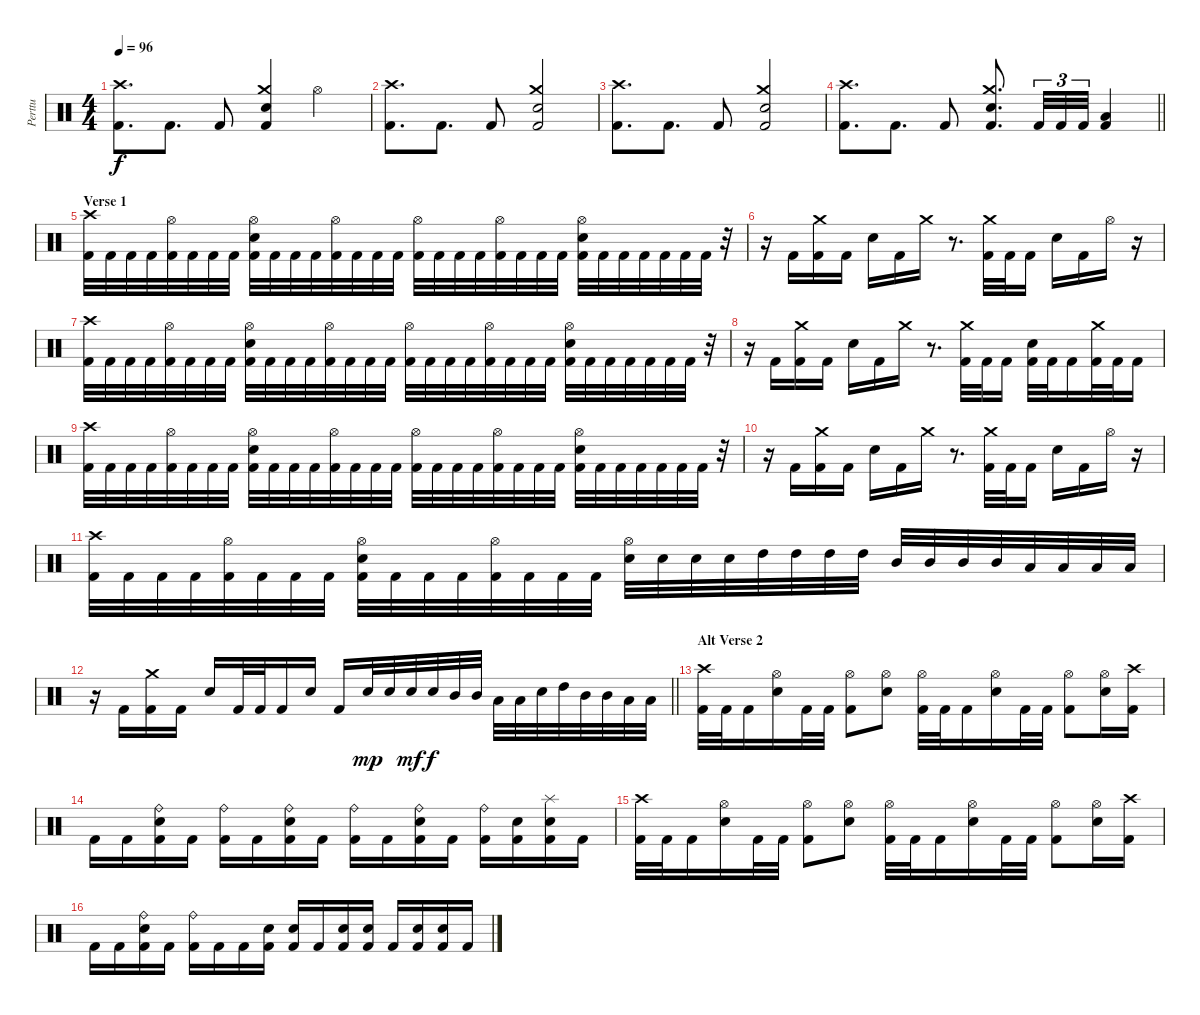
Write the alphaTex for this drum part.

\track ("Perttu" "Perttu") {instrument percussion}
\staff {score}
\articulation defaults
\ts (4 4)
\tempo 96
\clef neutral
\ks c
("Crash high (hit)" "Kick (hit) 2").8{d dy f} "Kick (hit) 2".8{d} "Kick (hit) 2".8 ("Crash medium (hit)" "Electric Snare (hit)" "Kick (hit) 2").4 "Hi-Hat (open)".4 |
("Crash high (hit)" "Kick (hit) 2").8{d} "Kick (hit) 2".8{d} "Kick (hit) 2".8 ("Crash medium (hit)" "Electric Snare (hit)" "Kick (hit) 2").2 |
("Crash high (hit)" "Kick (hit) 2").8{d} "Kick (hit) 2".8{d} "Kick (hit) 2".8 ("Crash medium (hit)" "Electric Snare (hit)" "Kick (hit) 2").2 |
\barLineRight lightlight
("Crash high (hit)" "Kick (hit) 2").8{d} "Kick (hit) 2".8{d} "Kick (hit) 2".8 ("Crash medium (hit)" "Electric Snare (hit)" "Kick (hit) 2").8{d} "Kick (hit) 2".32{tu (3 2)} "Kick (hit) 2".32{tu (3 2)} "Kick (hit) 2".32{tu (3 2)} ("Low Tom (hit)" "Kick (hit) 2").4 |
\section ("" "Verse 1")
("Crash high (hit)" "Kick (hit) 2").32 "Kick (hit) 2".32 "Kick (hit) 2".32 "Kick (hit) 2".32 ("Hi-Hat (open)" "Kick (hit) 2").32 "Kick (hit) 2".32 "Kick (hit) 2".32 "Kick (hit) 2".32 ("Hi-Hat (open)" "Electric Snare (hit)" "Kick (hit) 2").32 "Kick (hit) 2".32 "Kick (hit) 2".32 "Kick (hit) 2".32 ("Hi-Hat (open)" "Kick (hit) 2").32 "Kick (hit) 2".32 "Kick (hit) 2".32 "Kick (hit) 2".32 ("Hi-Hat (open)" "Kick (hit) 2").32 "Kick (hit) 2".32 "Kick (hit) 2".32 "Kick (hit) 2".32 ("Hi-Hat (open)" "Kick (hit) 2").32 "Kick (hit) 2".32 "Kick (hit) 2".32 "Kick (hit) 2".32 ("Hi-Hat (open)" "Electric Snare (hit)" "Kick (hit) 2").32 "Kick (hit) 2".32 "Kick (hit) 2".32 "Kick (hit) 2".32 "Kick (hit) 2".32 "Kick (hit) 2".32 "Kick (hit) 2".32 r.32 |
r.16 "Kick (hit) 2".16 ("Crash medium (hit)" "Kick (hit) 2").16 "Kick (hit) 2".16 "Electric Snare (hit)".16 "Kick (hit) 2".16 "Crash medium (hit)".16 r.8{d} ("Crash medium (hit)" "Kick (hit) 2").32 "Kick (hit) 2".32 "Kick (hit) 2".16 "Electric Snare (hit)".16 "Kick (hit) 2".16 "Hi-Hat (open)".16 r.16 |
("Crash high (hit)" "Kick (hit) 2").32 "Kick (hit) 2".32 "Kick (hit) 2".32 "Kick (hit) 2".32 ("Hi-Hat (open)" "Kick (hit) 2").32 "Kick (hit) 2".32 "Kick (hit) 2".32 "Kick (hit) 2".32 ("Hi-Hat (open)" "Electric Snare (hit)" "Kick (hit) 2").32 "Kick (hit) 2".32 "Kick (hit) 2".32 "Kick (hit) 2".32 ("Hi-Hat (open)" "Kick (hit) 2").32 "Kick (hit) 2".32 "Kick (hit) 2".32 "Kick (hit) 2".32 ("Hi-Hat (open)" "Kick (hit) 2").32 "Kick (hit) 2".32 "Kick (hit) 2".32 "Kick (hit) 2".32 ("Hi-Hat (open)" "Kick (hit) 2").32 "Kick (hit) 2".32 "Kick (hit) 2".32 "Kick (hit) 2".32 ("Hi-Hat (open)" "Electric Snare (hit)" "Kick (hit) 2").32 "Kick (hit) 2".32 "Kick (hit) 2".32 "Kick (hit) 2".32 "Kick (hit) 2".32 "Kick (hit) 2".32 "Kick (hit) 2".32 r.32 |
r.16 "Kick (hit) 2".16 ("Crash medium (hit)" "Kick (hit) 2").16 "Kick (hit) 2".16 "Electric Snare (hit)".16 "Kick (hit) 2".16 "Crash medium (hit)".16 r.8{d} ("Crash medium (hit)" "Kick (hit) 2").32 "Kick (hit) 2".32 "Kick (hit) 2".16 ("Electric Snare (hit)" "Kick (hit) 2").32 "Kick (hit) 2".32 "Kick (hit) 2".16 ("Crash medium (hit)" "Kick (hit) 2").32 "Kick (hit) 2".32 "Kick (hit) 2".16 |
("Crash high (hit)" "Kick (hit) 2").32 "Kick (hit) 2".32 "Kick (hit) 2".32 "Kick (hit) 2".32 ("Hi-Hat (open)" "Kick (hit) 2").32 "Kick (hit) 2".32 "Kick (hit) 2".32 "Kick (hit) 2".32 ("Hi-Hat (open)" "Electric Snare (hit)" "Kick (hit) 2").32 "Kick (hit) 2".32 "Kick (hit) 2".32 "Kick (hit) 2".32 ("Hi-Hat (open)" "Kick (hit) 2").32 "Kick (hit) 2".32 "Kick (hit) 2".32 "Kick (hit) 2".32 ("Hi-Hat (open)" "Kick (hit) 2").32 "Kick (hit) 2".32 "Kick (hit) 2".32 "Kick (hit) 2".32 ("Hi-Hat (open)" "Kick (hit) 2").32 "Kick (hit) 2".32 "Kick (hit) 2".32 "Kick (hit) 2".32 ("Hi-Hat (open)" "Electric Snare (hit)" "Kick (hit) 2").32 "Kick (hit) 2".32 "Kick (hit) 2".32 "Kick (hit) 2".32 "Kick (hit) 2".32 "Kick (hit) 2".32 "Kick (hit) 2".32 r.32 |
r.16 "Kick (hit) 2".16 ("Crash medium (hit)" "Kick (hit) 2").16 "Kick (hit) 2".16 "Electric Snare (hit)".16 "Kick (hit) 2".16 "Crash medium (hit)".16 r.8{d} ("Crash medium (hit)" "Kick (hit) 2").32 "Kick (hit) 2".32 "Kick (hit) 2".16 "Electric Snare (hit)".16 "Kick (hit) 2".16 "Hi-Hat (open)".16 r.16 |
("Crash high (hit)" "Kick (hit) 2").32 "Kick (hit) 2".32 "Kick (hit) 2".32 "Kick (hit) 2".32 ("Hi-Hat (open)" "Kick (hit) 2").32 "Kick (hit) 2".32 "Kick (hit) 2".32 "Kick (hit) 2".32 ("Hi-Hat (open)" "Electric Snare (hit)" "Kick (hit) 2").32 "Kick (hit) 2".32 "Kick (hit) 2".32 "Kick (hit) 2".32 ("Hi-Hat (open)" "Kick (hit) 2").32 "Kick (hit) 2".32 "Kick (hit) 2".32 "Kick (hit) 2".32 ("Hi-Hat (open)" "Electric Snare (hit)").32 "Electric Snare (hit)".32 "Electric Snare (hit)".32 "Electric Snare (hit)".32 "High Tom (hit)".32 "High Tom (hit)".32 "High Tom (hit)".32 "High Tom (hit)".32 "Mid Tom (hit)".32 "Mid Tom (hit)".32 "Mid Tom (hit)".32 "Mid Tom (hit)".32 "Low Tom (hit)".32 "Low Tom (hit)".32 "Low Tom (hit)".32 "Low Tom (hit)".32 |
\barLineRight lightlight
r.16 "Kick (hit) 2".16 ("Crash medium (hit)" "Kick (hit) 2").16 "Kick (hit) 2".16 "Electric Snare (hit)".16 "Kick (hit) 2".32 "Kick (hit) 2".32 "Kick (hit) 2".16 "Electric Snare (hit)".16 "Kick (hit) 2".16 "Electric Snare (hit)".32{dy mp} "Electric Snare (hit)".32 "Electric Snare (hit)".32{dy mf} "Electric Snare (hit)".32{dy f} "Mid Tom (hit)".32 "Mid Tom (hit)".32 "Low Tom (hit)".32 "Low Tom (hit)".32 "Electric Snare (hit)".32 "High Tom (hit)".32 "Mid Tom (hit)".32 "Mid Tom (hit)".32 "Low Tom (hit)".32 "Low Tom (hit)".32 |
\section ("" "Alt Verse 2 ")
("Crash high (hit)" "Kick (hit) 2").32 "Kick (hit) 2".32 "Kick (hit) 2".16 ("Hi-Hat (open)" "Electric Snare (hit)").16 "Kick (hit) 2".32 "Kick (hit) 2".32 ("Hi-Hat (open)" "Kick (hit) 2").8 ("Hi-Hat (open)" "Electric Snare (hit)").8 ("Hi-Hat (open)" "Kick (hit) 2").32 "Kick (hit) 2".32 "Kick (hit) 2".16 ("Hi-Hat (open)" "Electric Snare (hit)").16 "Kick (hit) 2".32 "Kick (hit) 2".32 ("Hi-Hat (open)" "Kick (hit) 2").8 ("Hi-Hat (open)" "Electric Snare (hit)").16 ("Crash high (hit)" "Kick (hit) 2").16 |
"Kick (hit) 2".16 "Kick (hit) 2".16 ("Ride (bell)" "Electric Snare (hit)" "Kick (hit) 2").16 "Kick (hit) 2".16 ("Ride (bell)" "Kick (hit) 2").16 "Kick (hit) 2".16 ("Ride (bell)" "Electric Snare (hit)" "Kick (hit) 2").16 "Kick (hit) 2".16 ("Ride (bell)" "Kick (hit) 2").16 "Kick (hit) 2".16 ("Ride (bell)" "Electric Snare (hit)" "Kick (hit) 2").16 "Kick (hit) 2".16 ("Ride (bell)" "Kick (hit) 2").16 ("Electric Snare (hit)" "Kick (hit) 2").16 ("Splash (hit)" "Electric Snare (hit)" "Kick (hit) 2").16 "Kick (hit) 2".16 |
("Crash high (hit)" "Kick (hit) 2").32 "Kick (hit) 2".32 "Kick (hit) 2".16 ("Hi-Hat (open)" "Electric Snare (hit)").16 "Kick (hit) 2".32 "Kick (hit) 2".32 ("Hi-Hat (open)" "Kick (hit) 2").8 ("Hi-Hat (open)" "Electric Snare (hit)").8 ("Hi-Hat (open)" "Kick (hit) 2").32 "Kick (hit) 2".32 "Kick (hit) 2".16 ("Hi-Hat (open)" "Electric Snare (hit)").16 "Kick (hit) 2".32 "Kick (hit) 2".32 ("Hi-Hat (open)" "Kick (hit) 2").8 ("Hi-Hat (open)" "Electric Snare (hit)").16 ("Crash high (hit)" "Kick (hit) 2").16 |
"Kick (hit) 2".16 "Kick (hit) 2".16 ("Ride (bell)" "Electric Snare (hit)" "Kick (hit) 2").16 "Kick (hit) 2".16 ("Ride (bell)" "Kick (hit) 2").16 "Kick (hit) 2".16 "Kick (hit) 2".16 ("Electric Snare (hit)" "Kick (hit) 2").16 ("Electric Snare (hit)" "Kick (hit) 2").16 "Kick (hit) 2".16 ("Electric Snare (hit)" "Kick (hit) 2").16 ("Electric Snare (hit)" "Kick (hit) 2").16 "Kick (hit) 2".16 ("Electric Snare (hit)" "Kick (hit) 2").16 ("Electric Snare (hit)" "Kick (hit) 2").16 "Kick (hit) 2".16
